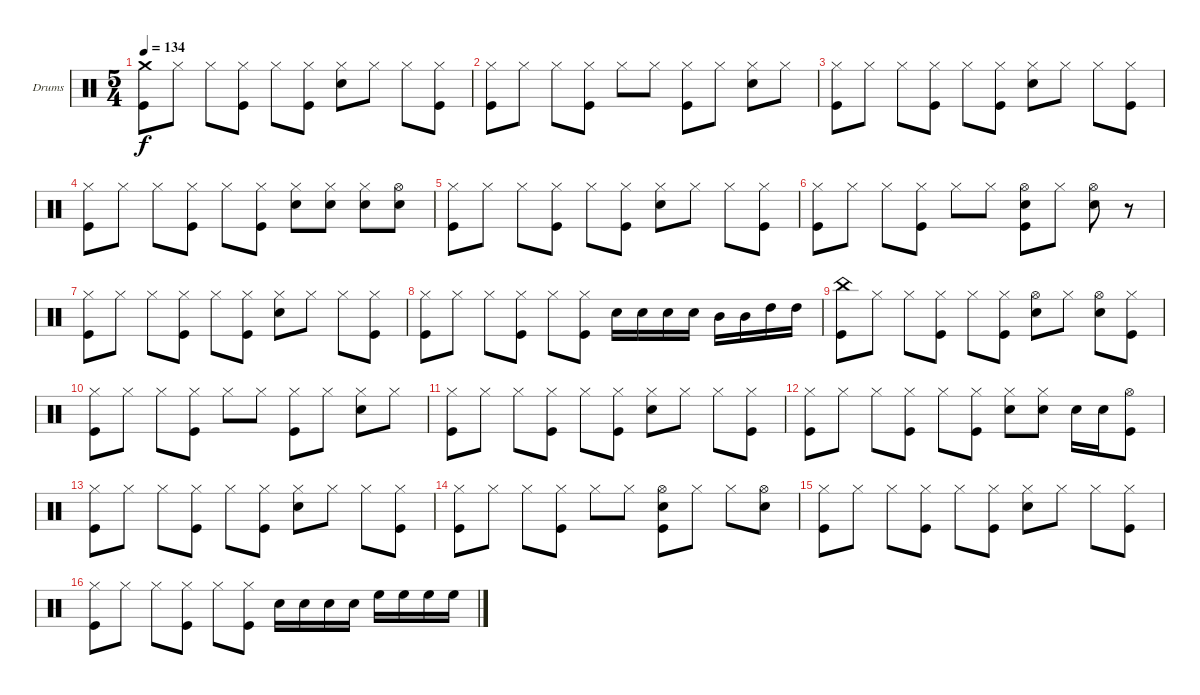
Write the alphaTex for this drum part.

\bracketExtendMode groupsimilarinstruments
\firstSystemTrackNameOrientation horizontal
\otherSystemsTrackNameOrientation horizontal
\track ("Drumkit" "Drums") {instrument percussion}
\staff {score}
\articulation defaults
\ts (5 4)
\tempo 134
\clef neutral
\ks c
("Crash medium (hit)" "Kick (hit)").8{dy f} "Hi-Hat (closed)".8 "Hi-Hat (closed)".8 ("Kick (hit)" "Hi-Hat (closed)").8 "Hi-Hat (closed)".8 ("Hi-Hat (closed)" "Kick (hit)").8 ("Snare (hit) 2" "Hi-Hat (closed)").8 "Hi-Hat (closed)".8 "Hi-Hat (closed)".8 ("Hi-Hat (closed)" "Kick (hit)").8 |
("Hi-Hat (closed)" "Kick (hit)").8 "Hi-Hat (closed)".8 "Hi-Hat (closed)".8 ("Kick (hit)" "Hi-Hat (closed)").8 "Hi-Hat (closed)".8 "Hi-Hat (closed)".8 ("Hi-Hat (closed)" "Kick (hit)").8 "Hi-Hat (closed)".8 ("Snare (hit) 2" "Hi-Hat (closed)").8 "Hi-Hat (closed)".8 |
("Hi-Hat (closed)" "Kick (hit)").8 "Hi-Hat (closed)".8 "Hi-Hat (closed)".8 ("Kick (hit)" "Hi-Hat (closed)").8 "Hi-Hat (closed)".8 ("Hi-Hat (closed)" "Kick (hit)").8 ("Snare (hit) 2" "Hi-Hat (closed)").8 "Hi-Hat (closed)".8 "Hi-Hat (closed)".8 ("Hi-Hat (closed)" "Kick (hit)").8 |
("Hi-Hat (closed)" "Kick (hit)").8 "Hi-Hat (closed)".8 "Hi-Hat (closed)".8 ("Kick (hit)" "Hi-Hat (closed)").8 "Hi-Hat (closed)".8 ("Hi-Hat (closed)" "Kick (hit)").8 ("Hi-Hat (closed)" "Snare (hit) 2").8 ("Hi-Hat (closed)" "Snare (hit) 2").8 ("Hi-Hat (closed)" "Snare (hit) 2").8 ("Snare (hit) 2" "Hi-Hat (open)").8 |
("Kick (hit)" "Hi-Hat (closed)").8 "Hi-Hat (closed)".8 "Hi-Hat (closed)".8 ("Hi-Hat (closed)" "Kick (hit)").8 "Hi-Hat (closed)".8 ("Kick (hit)" "Hi-Hat (closed)").8 ("Hi-Hat (closed)" "Snare (hit) 2").8 "Hi-Hat (closed)".8 "Hi-Hat (closed)".8 ("Kick (hit)" "Hi-Hat (closed)").8 |
("Kick (hit)" "Hi-Hat (closed)").8 "Hi-Hat (closed)".8 "Hi-Hat (closed)".8 ("Hi-Hat (closed)" "Kick (hit)").8 "Hi-Hat (closed)".8 "Hi-Hat (closed)".8 ("Kick (hit)" "Hi-Hat (open)" "Snare (hit) 2").8 "Hi-Hat (closed)".8 ("Hi-Hat (open)" "Snare (hit) 2").8 r.8 |
("Kick (hit)" "Hi-Hat (closed)").8 "Hi-Hat (closed)".8 "Hi-Hat (closed)".8 ("Hi-Hat (closed)" "Kick (hit)").8 "Hi-Hat (closed)".8 ("Kick (hit)" "Hi-Hat (closed)").8 ("Hi-Hat (closed)" "Snare (hit) 2").8 "Hi-Hat (closed)".8 "Hi-Hat (closed)".8 ("Kick (hit)" "Hi-Hat (closed)").8 |
("Kick (hit)" "Hi-Hat (closed)").8 "Hi-Hat (closed)".8 "Hi-Hat (closed)".8 ("Hi-Hat (closed)" "Kick (hit)").8 "Hi-Hat (closed)".8 ("Hi-Hat (closed)" "Kick (hit)").8 "Snare (hit) 2".16 "Snare (hit) 2".16 "Snare (hit) 2".16 "Snare (hit) 2".16 "Mid Tom (hit)".16 "Mid Tom (hit)".16 "High Tom (hit)".16 "High Tom (hit)".16 |
("Kick (hit)" "China (hit)").8 "Hi-Hat (closed)".8 "Hi-Hat (closed)".8 ("Hi-Hat (closed)" "Kick (hit)").8 "Hi-Hat (closed)".8 ("Kick (hit)" "Hi-Hat (closed)").8 ("Snare (hit) 2" "Hi-Hat (open)").8 "Hi-Hat (closed)".8 ("Snare (hit) 2" "Hi-Hat (open)").8 ("Kick (hit)" "Hi-Hat (closed)").8 |
("Kick (hit)" "Hi-Hat (closed)").8 "Hi-Hat (closed)".8 "Hi-Hat (closed)".8 ("Hi-Hat (closed)" "Kick (hit)").8 "Hi-Hat (closed)".8 "Hi-Hat (closed)".8 ("Kick (hit)" "Hi-Hat (closed)").8 "Hi-Hat (closed)".8 ("Hi-Hat (closed)" "Snare (hit) 2").8 "Hi-Hat (closed)".8 |
("Kick (hit)" "Hi-Hat (closed)").8 "Hi-Hat (closed)".8 "Hi-Hat (closed)".8 ("Hi-Hat (closed)" "Kick (hit)").8 "Hi-Hat (closed)".8 ("Kick (hit)" "Hi-Hat (closed)").8 ("Hi-Hat (closed)" "Snare (hit) 2").8 "Hi-Hat (closed)".8 "Hi-Hat (closed)".8 ("Kick (hit)" "Hi-Hat (closed)").8 |
("Kick (hit)" "Hi-Hat (closed)").8 "Hi-Hat (closed)".8 "Hi-Hat (closed)".8 ("Hi-Hat (closed)" "Kick (hit)").8 "Hi-Hat (closed)".8 ("Kick (hit)" "Hi-Hat (closed)").8 ("Snare (hit) 2" "Hi-Hat (closed)").8 ("Snare (hit) 2" "Hi-Hat (closed)").8 "Snare (hit) 2".16 "Snare (hit) 2".16 ("Hi-Hat (open)" "Kick (hit)").8 |
("Hi-Hat (closed)" "Kick (hit)").8 "Hi-Hat (closed)".8 "Hi-Hat (closed)".8 ("Kick (hit)" "Hi-Hat (closed)").8 "Hi-Hat (closed)".8 ("Hi-Hat (closed)" "Kick (hit)").8 ("Snare (hit) 2" "Hi-Hat (closed)").8 "Hi-Hat (closed)".8 "Hi-Hat (closed)".8 ("Hi-Hat (closed)" "Kick (hit)").8 |
("Hi-Hat (closed)" "Kick (hit)").8 "Hi-Hat (closed)".8 "Hi-Hat (closed)".8 ("Kick (hit)" "Hi-Hat (closed)").8 "Hi-Hat (closed)".8 "Hi-Hat (closed)".8 ("Snare (hit) 2" "Hi-Hat (open)" "Kick (hit)").8 "Hi-Hat (closed)".8 "Hi-Hat (closed)".8 ("Snare (hit) 2" "Hi-Hat (open)").8 |
("Hi-Hat (closed)" "Kick (hit)").8 "Hi-Hat (closed)".8 "Hi-Hat (closed)".8 ("Kick (hit)" "Hi-Hat (closed)").8 "Hi-Hat (closed)".8 ("Hi-Hat (closed)" "Kick (hit)").8 ("Snare (hit) 2" "Hi-Hat (closed)").8 "Hi-Hat (closed)".8 "Hi-Hat (closed)".8 ("Hi-Hat (closed)" "Kick (hit)").8 |
("Hi-Hat (closed)" "Kick (hit)").8 "Hi-Hat (closed)".8 "Hi-Hat (closed)".8 ("Kick (hit)" "Hi-Hat (closed)").8 "Hi-Hat (closed)".8 ("Hi-Hat (closed)" "Kick (hit)").8 "Snare (hit) 2".16 "Snare (hit) 2".16 "Snare (hit) 2".16 "Snare (hit) 2".16 "High Floor Tom (hit)".16 "High Floor Tom (hit)".16 "High Floor Tom (hit)".16 "High Floor Tom (hit)".16
